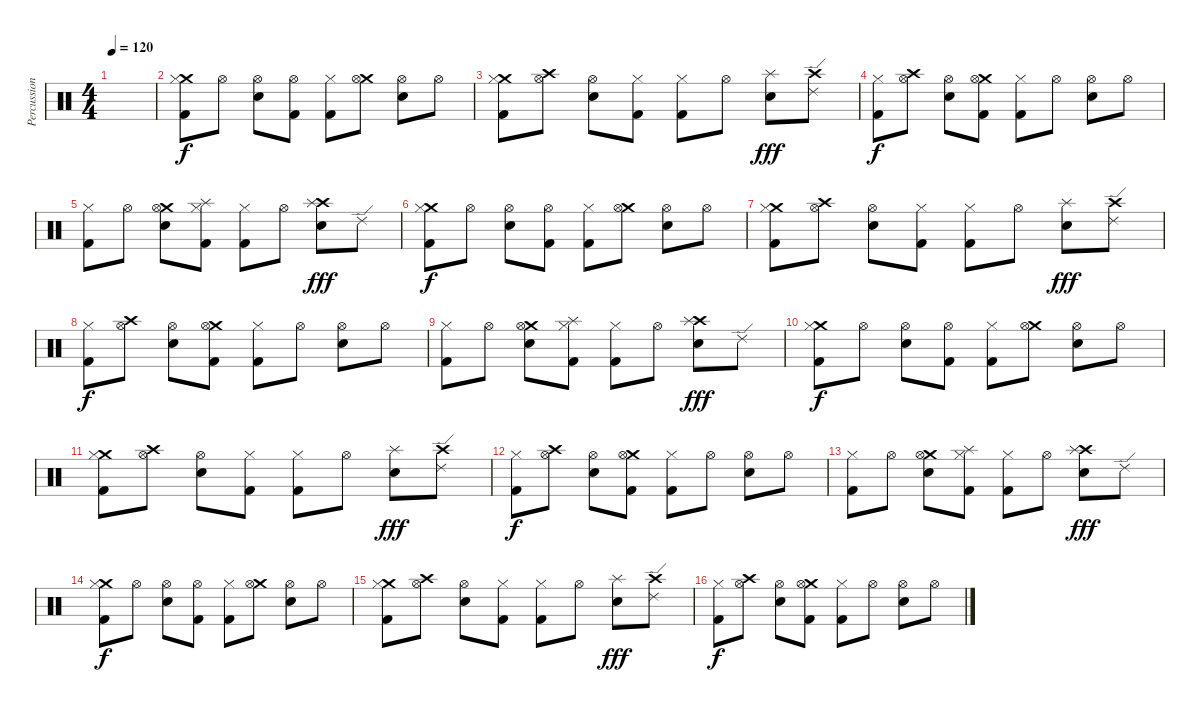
\track ("Percussion" "Percussion") {instrument percussion}
\staff {score}
\articulation defaults
\ts (4 4)
\tempo 120
\clef neutral
\ks c
|
("Crash medium (hit)" "Kick (hit) 2" "Hi-Hat (closed)").8{dy f} "Hi-Hat (open)".8 ("Electric Snare (hit)" "Hi-Hat (open)").8 ("Kick (hit) 2" "Hi-Hat (open)").8 ("Kick (hit) 2" "Hi-Hat (closed)").8 ("Crash medium (hit)" "Hi-Hat (open)").8 ("Electric Snare (hit)" "Hi-Hat (open)").8 "Hi-Hat (open)".8 |
("Crash medium (hit)" "Kick (hit) 2" "Hi-Hat (closed)").8 ("Crash high (hit)" "Hi-Hat (open)").8 ("Electric Snare (hit)" "Hi-Hat (open)").8 ("Kick (hit) 2" "Hi-Hat (closed)").8 ("Kick (hit) 2" "Hi-Hat (closed)").8 "Hi-Hat (open)".8 ("Electric Snare (hit)" "Splash (hit)").8{dy fff} ("Crash high (hit)" "Ride (edge) 2").8 |
("Kick (hit) 2" "Hi-Hat (closed)").8{dy f} ("Crash high (hit)" "Hi-Hat (open)").8 ("Electric Snare (hit)" "Hi-Hat (open)").8 ("Crash medium (hit)" "Kick (hit) 2" "Hi-Hat (open)").8 ("Kick (hit) 2" "Hi-Hat (closed)").8 "Hi-Hat (open)".8 ("Electric Snare (hit)" "Hi-Hat (open)").8 "Hi-Hat (open)".8 |
("Kick (hit) 2" "Hi-Hat (closed)").8 "Hi-Hat (open)".8 ("Crash medium (hit)" "Electric Snare (hit)" "Hi-Hat (open)").8 ("Splash (hit)" "Kick (hit) 2" "Hi-Hat (closed)").8 ("Kick (hit) 2" "Hi-Hat (closed)").8 "Hi-Hat (open)".8 ("Crash high (hit)" "Electric Snare (hit)" "Splash (hit)").8{dy fff} "Ride (edge) 2".8 |
("Crash medium (hit)" "Kick (hit) 2" "Hi-Hat (closed)").8{dy f} "Hi-Hat (open)".8 ("Electric Snare (hit)" "Hi-Hat (open)").8 ("Kick (hit) 2" "Hi-Hat (open)").8 ("Kick (hit) 2" "Hi-Hat (closed)").8 ("Crash medium (hit)" "Hi-Hat (open)").8 ("Electric Snare (hit)" "Hi-Hat (open)").8 "Hi-Hat (open)".8 |
("Crash medium (hit)" "Kick (hit) 2" "Hi-Hat (closed)").8 ("Crash high (hit)" "Hi-Hat (open)").8 ("Electric Snare (hit)" "Hi-Hat (open)").8 ("Kick (hit) 2" "Hi-Hat (closed)").8 ("Kick (hit) 2" "Hi-Hat (closed)").8 "Hi-Hat (open)".8 ("Electric Snare (hit)" "Splash (hit)").8{dy fff} ("Crash high (hit)" "Ride (edge) 2").8 |
("Kick (hit) 2" "Hi-Hat (closed)").8{dy f} ("Crash high (hit)" "Hi-Hat (open)").8 ("Electric Snare (hit)" "Hi-Hat (open)").8 ("Crash medium (hit)" "Kick (hit) 2" "Hi-Hat (open)").8 ("Kick (hit) 2" "Hi-Hat (closed)").8 "Hi-Hat (open)".8 ("Electric Snare (hit)" "Hi-Hat (open)").8 "Hi-Hat (open)".8 |
("Kick (hit) 2" "Hi-Hat (closed)").8 "Hi-Hat (open)".8 ("Crash medium (hit)" "Electric Snare (hit)" "Hi-Hat (open)").8 ("Splash (hit)" "Kick (hit) 2" "Hi-Hat (closed)").8 ("Kick (hit) 2" "Hi-Hat (closed)").8 "Hi-Hat (open)".8 ("Crash high (hit)" "Electric Snare (hit)" "Splash (hit)").8{dy fff} "Ride (edge) 2".8 |
("Crash medium (hit)" "Kick (hit) 2" "Hi-Hat (closed)").8{dy f} "Hi-Hat (open)".8 ("Electric Snare (hit)" "Hi-Hat (open)").8 ("Kick (hit) 2" "Hi-Hat (open)").8 ("Kick (hit) 2" "Hi-Hat (closed)").8 ("Crash medium (hit)" "Hi-Hat (open)").8 ("Electric Snare (hit)" "Hi-Hat (open)").8 "Hi-Hat (open)".8 |
("Crash medium (hit)" "Kick (hit) 2" "Hi-Hat (closed)").8 ("Crash high (hit)" "Hi-Hat (open)").8 ("Electric Snare (hit)" "Hi-Hat (open)").8 ("Kick (hit) 2" "Hi-Hat (closed)").8 ("Kick (hit) 2" "Hi-Hat (closed)").8 "Hi-Hat (open)".8 ("Electric Snare (hit)" "Splash (hit)").8{dy fff} ("Crash high (hit)" "Ride (edge) 2").8 |
("Kick (hit) 2" "Hi-Hat (closed)").8{dy f} ("Crash high (hit)" "Hi-Hat (open)").8 ("Electric Snare (hit)" "Hi-Hat (open)").8 ("Crash medium (hit)" "Kick (hit) 2" "Hi-Hat (open)").8 ("Kick (hit) 2" "Hi-Hat (closed)").8 "Hi-Hat (open)".8 ("Electric Snare (hit)" "Hi-Hat (open)").8 "Hi-Hat (open)".8 |
("Kick (hit) 2" "Hi-Hat (closed)").8 "Hi-Hat (open)".8 ("Crash medium (hit)" "Electric Snare (hit)" "Hi-Hat (open)").8 ("Splash (hit)" "Kick (hit) 2" "Hi-Hat (closed)").8 ("Kick (hit) 2" "Hi-Hat (closed)").8 "Hi-Hat (open)".8 ("Crash high (hit)" "Electric Snare (hit)" "Splash (hit)").8{dy fff} "Ride (edge) 2".8 |
("Crash medium (hit)" "Kick (hit) 2" "Hi-Hat (closed)").8{dy f} "Hi-Hat (open)".8 ("Electric Snare (hit)" "Hi-Hat (open)").8 ("Kick (hit) 2" "Hi-Hat (open)").8 ("Kick (hit) 2" "Hi-Hat (closed)").8 ("Crash medium (hit)" "Hi-Hat (open)").8 ("Electric Snare (hit)" "Hi-Hat (open)").8 "Hi-Hat (open)".8 |
("Crash medium (hit)" "Kick (hit) 2" "Hi-Hat (closed)").8 ("Crash high (hit)" "Hi-Hat (open)").8 ("Electric Snare (hit)" "Hi-Hat (open)").8 ("Kick (hit) 2" "Hi-Hat (closed)").8 ("Kick (hit) 2" "Hi-Hat (closed)").8 "Hi-Hat (open)".8 ("Electric Snare (hit)" "Splash (hit)").8{dy fff} ("Crash high (hit)" "Ride (edge) 2").8 |
("Kick (hit) 2" "Hi-Hat (closed)").8{dy f} ("Crash high (hit)" "Hi-Hat (open)").8 ("Electric Snare (hit)" "Hi-Hat (open)").8 ("Crash medium (hit)" "Kick (hit) 2" "Hi-Hat (open)").8 ("Kick (hit) 2" "Hi-Hat (closed)").8 "Hi-Hat (open)".8 ("Electric Snare (hit)" "Hi-Hat (open)").8 "Hi-Hat (open)".8
